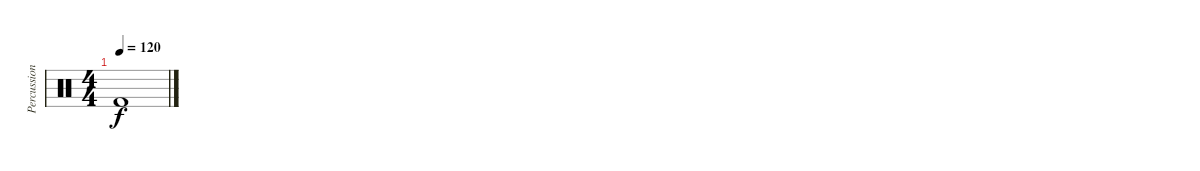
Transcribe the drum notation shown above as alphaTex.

\track ("Percussions" "Percussion") {instrument percussion}
\staff {score}
\articulation defaults
\ts (4 4)
\tempo 120
\clef neutral
\ks c "Kick (hit) 2".1{dy f}
